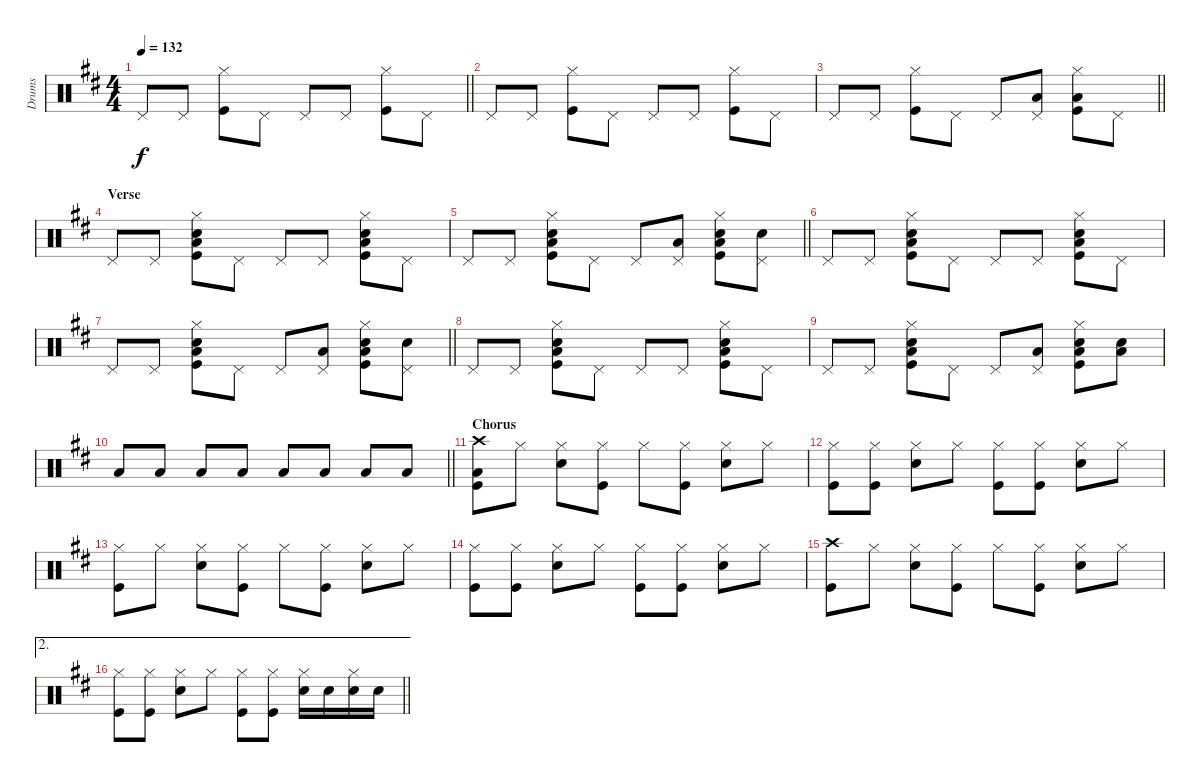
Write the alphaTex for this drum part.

\track ("Drums" "Drums") {instrument percussion}
\staff {score}
\articulation defaults
\ts (4 4)
\tempo 132
\clef neutral
\barLineRight lightlight
\ks d "Pedal Hi-Hat (hit)".8{dy f} "Pedal Hi-Hat (hit)".8
("Hi-Hat (closed)" "Kick (hit)").8 "Pedal Hi-Hat (hit)".8 "Pedal Hi-Hat (hit)".8 "Pedal Hi-Hat (hit)".8 ("Hi-Hat (closed)" "Kick (hit)").8 "Pedal Hi-Hat (hit)".8 |
"Pedal Hi-Hat (hit)".8 "Pedal Hi-Hat (hit)".8 ("Hi-Hat (closed)" "Kick (hit)").8 "Pedal Hi-Hat (hit)".8 "Pedal Hi-Hat (hit)".8 "Pedal Hi-Hat (hit)".8 ("Hi-Hat (closed)" "Kick (hit)").8 "Pedal Hi-Hat (hit)".8 |
\barLineRight lightlight "Pedal Hi-Hat (hit)".8 "Pedal Hi-Hat (hit)".8
("Hi-Hat (closed)" "Kick (hit)").8 "Pedal Hi-Hat (hit)".8 "Pedal Hi-Hat (hit)".8 ("Pedal Hi-Hat (hit)" "Low Tom (hit)").8 ("Hi-Hat (closed)" "Low Floor Tom (hit)" "Kick (hit)").8 "Pedal Hi-Hat (hit)".8 |
\section ("" "Verse")
"Pedal Hi-Hat (hit)".8 "Pedal Hi-Hat (hit)".8 ("Hi-Hat (closed)" "Hand Clap (hit)" "Low Floor Tom (hit)" "Kick (hit)").8 "Pedal Hi-Hat (hit)".8 "Pedal Hi-Hat (hit)".8 "Pedal Hi-Hat (hit)".8 ("Hi-Hat (closed)" "Hand Clap (hit)" "Low Floor Tom (hit)" "Kick (hit)").8 "Pedal Hi-Hat (hit)".8 |
\barLineRight lightlight "Pedal Hi-Hat (hit)".8 "Pedal Hi-Hat (hit)".8
("Hi-Hat (closed)" "Hand Clap (hit)" "Low Floor Tom (hit)" "Kick (hit)").8 "Pedal Hi-Hat (hit)".8 "Pedal Hi-Hat (hit)".8 ("Pedal Hi-Hat (hit)" "Low Tom (hit)").8 ("Hi-Hat (closed)" "Hand Clap (hit)" "Low Floor Tom (hit)" "Kick (hit)").8 ("Pedal Hi-Hat (hit)" "Hand Clap (hit)").8 |
"Pedal Hi-Hat (hit)".8 "Pedal Hi-Hat (hit)".8 ("Hi-Hat (closed)" "Hand Clap (hit)" "Low Floor Tom (hit)" "Kick (hit)").8 "Pedal Hi-Hat (hit)".8 "Pedal Hi-Hat (hit)".8 "Pedal Hi-Hat (hit)".8 ("Hi-Hat (closed)" "Hand Clap (hit)" "Low Floor Tom (hit)" "Kick (hit)").8 "Pedal Hi-Hat (hit)".8 |
\barLineRight lightlight "Pedal Hi-Hat (hit)".8 "Pedal Hi-Hat (hit)".8
("Hi-Hat (closed)" "Hand Clap (hit)" "Low Floor Tom (hit)" "Kick (hit)").8 "Pedal Hi-Hat (hit)".8 "Pedal Hi-Hat (hit)".8 ("Pedal Hi-Hat (hit)" "Low Tom (hit)").8 ("Hi-Hat (closed)" "Hand Clap (hit)" "Low Floor Tom (hit)" "Kick (hit)").8 ("Pedal Hi-Hat (hit)" "Hand Clap (hit)").8 |
"Pedal Hi-Hat (hit)".8 "Pedal Hi-Hat (hit)".8 ("Hi-Hat (closed)" "Hand Clap (hit)" "Low Floor Tom (hit)" "Kick (hit)").8 "Pedal Hi-Hat (hit)".8 "Pedal Hi-Hat (hit)".8 "Pedal Hi-Hat (hit)".8 ("Hi-Hat (closed)" "Hand Clap (hit)" "Low Floor Tom (hit)" "Kick (hit)").8 "Pedal Hi-Hat (hit)".8 |
"Pedal Hi-Hat (hit)".8 "Pedal Hi-Hat (hit)".8 ("Hi-Hat (closed)" "Hand Clap (hit)" "Low Floor Tom (hit)" "Kick (hit)").8 "Pedal Hi-Hat (hit)".8 "Pedal Hi-Hat (hit)".8 ("Pedal Hi-Hat (hit)" "Low Tom (hit)").8 ("Hi-Hat (closed)" "Hand Clap (hit)" "Low Floor Tom (hit)" "Kick (hit)").8 ("Hand Clap (hit)" "Low Floor Tom (hit)").8 |
\barLineRight lightlight "Low Floor Tom (hit)".8 "Low Floor Tom (hit)".8 "Low Floor Tom (hit)".8 "Low Floor Tom (hit)".8 "Low Floor Tom (hit)".8 "Low Floor Tom (hit)".8 "Low Floor Tom (hit)".8 "Low Floor Tom (hit)".8
|
\section ("" "Chorus")
("Crash high (hit)" "Low Floor Tom (hit)" "Kick (hit)").8 "Hi-Hat (closed)".8 ("Hi-Hat (closed)" "Electric Snare (hit)").8 ("Hi-Hat (closed)" "Kick (hit)").8 "Hi-Hat (closed)".8 ("Hi-Hat (closed)" "Kick (hit)").8 ("Hi-Hat (closed)" "Electric Snare (hit)").8 "Hi-Hat (closed)".8 |
("Hi-Hat (closed)" "Kick (hit)").8 ("Hi-Hat (closed)" "Kick (hit)").8 ("Hi-Hat (closed)" "Electric Snare (hit)").8 "Hi-Hat (closed)".8 ("Hi-Hat (closed)" "Kick (hit)").8 ("Hi-Hat (closed)" "Kick (hit)").8 ("Hi-Hat (closed)" "Electric Snare (hit)").8 "Hi-Hat (closed)".8 |
("Hi-Hat (closed)" "Kick (hit)").8 "Hi-Hat (closed)".8 ("Hi-Hat (closed)" "Electric Snare (hit)").8 ("Hi-Hat (closed)" "Kick (hit)").8 "Hi-Hat (closed)".8 ("Hi-Hat (closed)" "Kick (hit)").8 ("Hi-Hat (closed)" "Electric Snare (hit)").8 "Hi-Hat (closed)".8 |
("Hi-Hat (closed)" "Kick (hit)").8 ("Hi-Hat (closed)" "Kick (hit)").8 ("Hi-Hat (closed)" "Electric Snare (hit)").8 "Hi-Hat (closed)".8 ("Hi-Hat (closed)" "Kick (hit)").8 ("Hi-Hat (closed)" "Kick (hit)").8 ("Hi-Hat (closed)" "Electric Snare (hit)").8 "Hi-Hat (closed)".8 |
("Crash high (hit)" "Kick (hit)").8 "Hi-Hat (closed)".8 ("Hi-Hat (closed)" "Electric Snare (hit)").8 ("Hi-Hat (closed)" "Kick (hit)").8 "Hi-Hat (closed)".8 ("Hi-Hat (closed)" "Kick (hit)").8 ("Hi-Hat (closed)" "Electric Snare (hit)").8 "Hi-Hat (closed)".8 |
\ae 2
\barLineRight lightlight
("Hi-Hat (closed)" "Kick (hit)").8 ("Hi-Hat (closed)" "Kick (hit)").8 ("Hi-Hat (closed)" "Electric Snare (hit)").8 "Hi-Hat (closed)".8 ("Hi-Hat (closed)" "Kick (hit)").8 ("Hi-Hat (closed)" "Kick (hit)").8 ("Hi-Hat (closed)" "Electric Snare (hit)").16 "Electric Snare (hit)".16 ("Hi-Hat (closed)" "Electric Snare (hit)").16 "Electric Snare (hit)".16
